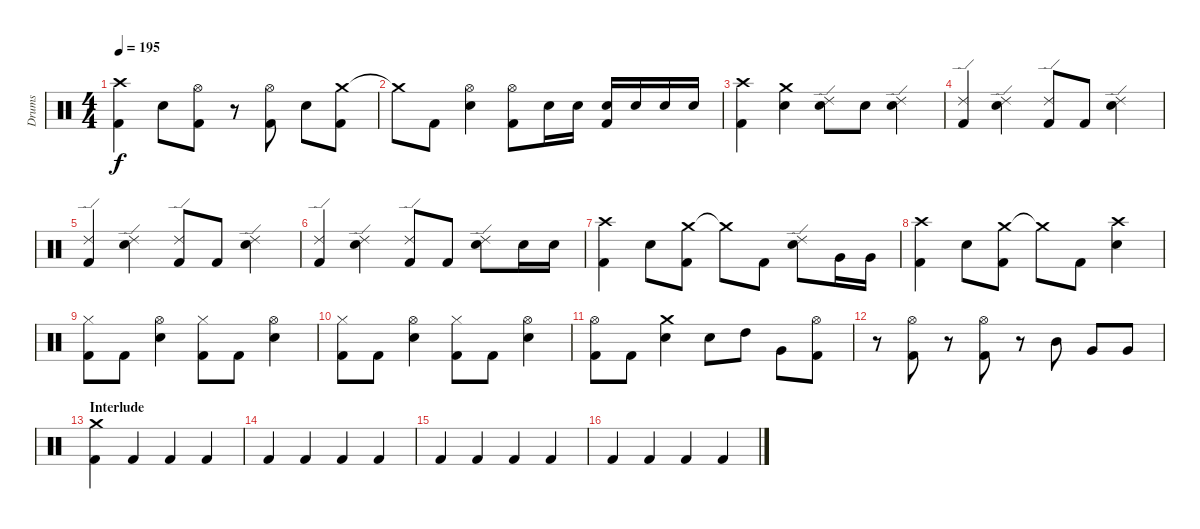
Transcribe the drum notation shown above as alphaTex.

\track ("Drums" "Drums") {instrument percussion}
\staff {score}
\articulation defaults
\ts (4 4)
\tempo 195
\clef neutral
\ks c
("Crash high (hit)" "Kick (hit) 2").4{dy f} "Snare (hit) 2".8 ("Hi-Hat (open)" "Kick (hit) 2").8 r.8 ("Hi-Hat (open)" "Kick (hit) 2").8 "Snare (hit) 2".8 ("Crash medium (hit)" "Kick (hit) 2").8 |
"Crash medium (hit)"{t}.8 "Kick (hit) 2".8 ("Hi-Hat (open)" "Snare (hit) 2").4 ("Hi-Hat (open)" "Kick (hit) 2").8 "Snare (hit) 2".16 "Snare (hit) 2".16 ("Snare (hit) 2" "Kick (hit) 2").16 "Snare (hit) 2".16 "Snare (hit) 2".16 "Snare (hit) 2".16 |
("Crash high (hit)" "Kick (hit) 2").4 ("Crash medium (hit)" "Snare (hit) 2").4 ("Ride (edge) 2" "Snare (hit) 2").8 "Snare (hit) 2".8 ("Ride (edge) 2" "Snare (hit) 2").4 |
("Ride (edge) 2" "Kick (hit) 2").4 ("Ride (edge) 2" "Snare (hit) 2").4 ("Ride (edge) 2" "Kick (hit) 2").8 "Kick (hit) 2".8 ("Ride (edge) 2" "Snare (hit) 2").4 |
("Ride (edge) 2" "Kick (hit) 2").4 ("Ride (edge) 2" "Snare (hit) 2").4 ("Ride (edge) 2" "Kick (hit) 2").8 "Kick (hit) 2".8 ("Ride (edge) 2" "Snare (hit) 2").4 |
("Ride (edge) 2" "Kick (hit) 2").4 ("Ride (edge) 2" "Snare (hit) 2").4 ("Ride (edge) 2" "Kick (hit) 2").8 "Kick (hit) 2".8 ("Ride (edge) 2" "Snare (hit) 2").8 "Snare (hit) 2".16 "Snare (hit) 2".16 |
("Crash high (hit)" "Kick (hit) 2").4 "Snare (hit) 2".8 ("Crash medium (hit)" "Kick (hit) 2").8 "Crash medium (hit)"{t}.8 "Kick (hit) 2".8 ("Ride (edge) 2" "Snare (hit) 2").8 "Very Low Tom (hit)".16 "Very Low Tom (hit)".16 |
("Crash high (hit)" "Kick (hit) 2").4 "Snare (hit) 2".8 ("Crash medium (hit)" "Kick (hit) 2").8 "Crash medium (hit)"{t}.8 "Kick (hit) 2".8 ("Crash high (hit)" "Snare (hit) 2").4 |
("Hi-Hat (closed)" "Kick (hit) 2").8 "Kick (hit) 2".8 ("Hi-Hat (open)" "Snare (hit) 2").4 ("Hi-Hat (closed)" "Kick (hit) 2").8 "Kick (hit) 2".8 ("Hi-Hat (open)" "Snare (hit) 2").4 |
("Hi-Hat (closed)" "Kick (hit) 2").8 "Kick (hit) 2".8 ("Hi-Hat (open)" "Snare (hit) 2").4 ("Hi-Hat (closed)" "Kick (hit) 2").8 "Kick (hit) 2".8 ("Hi-Hat (open)" "Snare (hit) 2").4 |
("Hi-Hat (open)" "Kick (hit) 2").8 "Kick (hit) 2".8 ("Crash medium (hit)" "Snare (hit) 2").4 "Snare (hit) 2".8 "High Tom (hit)".8 "Very Low Tom (hit)".8 ("Hi-Hat (open)" "Kick (hit) 2").8 |
r.8 ("Hi-Hat (open)" "Kick (hit) 2").8 r.8 ("Hi-Hat (open)" "Kick (hit) 2").8 r.8 "Mid Tom (hit)".8 "Very Low Tom (hit)".8 "Very Low Tom (hit)".8 |
\section ("" "Interlude")
("Crash medium (hit)" "Kick (hit) 2").4 "Kick (hit) 2".4 "Kick (hit) 2".4 "Kick (hit) 2".4 |
"Kick (hit) 2".4 "Kick (hit) 2".4 "Kick (hit) 2".4 "Kick (hit) 2".4 |
"Kick (hit) 2".4 "Kick (hit) 2".4 "Kick (hit) 2".4 "Kick (hit) 2".4 |
"Kick (hit) 2".4 "Kick (hit) 2".4 "Kick (hit) 2".4 "Kick (hit) 2".4
